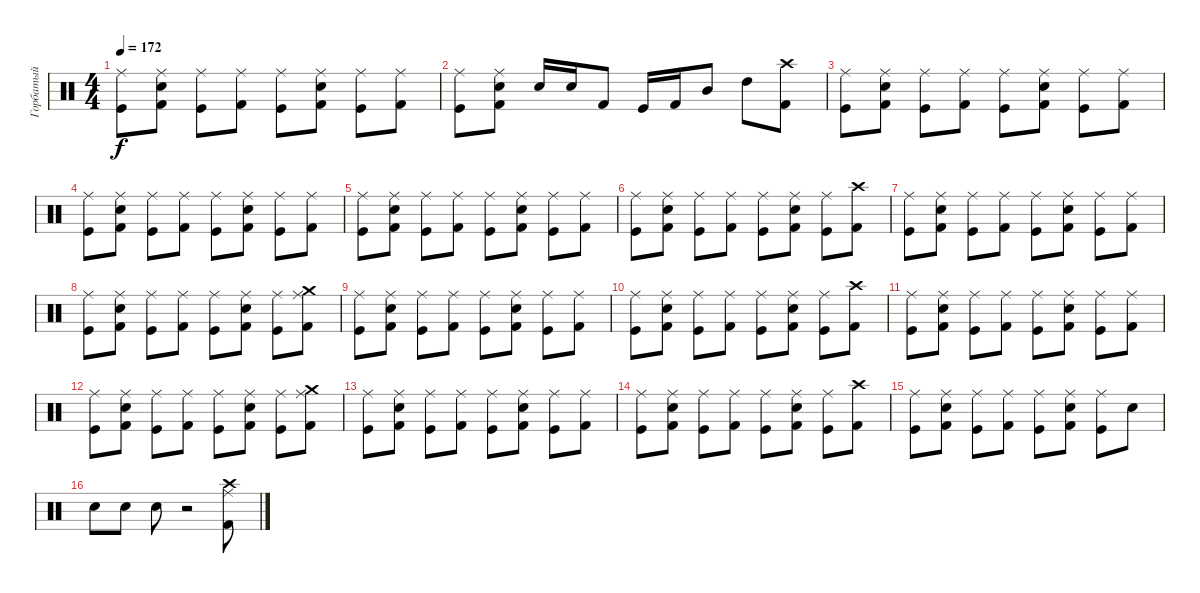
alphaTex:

\track ("Горбатый" "Горбатый") {instrument percussion}
\staff {score}
\articulation defaults
\ts (4 4)
\tempo 172
\clef neutral
\ks c
("Ride (middle)" "Kick (hit)").8{dy f} ("Electric Snare (hit)" "Ride (middle)" "Kick (hit) 2").8 ("Ride (middle)" "Kick (hit)").8 ("Ride (middle)" "Kick (hit) 2").8 ("Ride (middle)" "Kick (hit)").8 ("Electric Snare (hit)" "Ride (middle)" "Kick (hit) 2").8 ("Ride (middle)" "Kick (hit)").8 ("Ride (middle)" "Kick (hit) 2").8 |
("Ride (middle)" "Kick (hit)").8 ("Electric Snare (hit)" "Ride (middle)" "Kick (hit) 2").8 "Electric Snare (hit)".16 "Electric Snare (hit)".16 "Kick (hit) 2".8 "Kick (hit)".16 "Kick (hit) 2".16 "Mid Tom (hit)".8 "High Tom (hit)".8 ("Crash high (hit)" "Kick (hit) 2").8 |
("Ride (middle)" "Kick (hit)").8 ("Electric Snare (hit)" "Ride (middle)" "Kick (hit) 2").8 ("Ride (middle)" "Kick (hit)").8 ("Ride (middle)" "Kick (hit) 2").8 ("Ride (middle)" "Kick (hit)").8 ("Electric Snare (hit)" "Ride (middle)" "Kick (hit) 2").8 ("Ride (middle)" "Kick (hit)").8 ("Ride (middle)" "Kick (hit) 2").8 |
("Ride (middle)" "Kick (hit)").8 ("Electric Snare (hit)" "Ride (middle)" "Kick (hit) 2").8 ("Ride (middle)" "Kick (hit)").8 ("Ride (middle)" "Kick (hit) 2").8 ("Ride (middle)" "Kick (hit)").8 ("Electric Snare (hit)" "Ride (middle)" "Kick (hit) 2").8 ("Ride (middle)" "Kick (hit)").8 ("Ride (middle)" "Kick (hit) 2").8 |
("Ride (middle)" "Kick (hit)").8 ("Electric Snare (hit)" "Ride (middle)" "Kick (hit) 2").8 ("Ride (middle)" "Kick (hit)").8 ("Ride (middle)" "Kick (hit) 2").8 ("Ride (middle)" "Kick (hit)").8 ("Electric Snare (hit)" "Ride (middle)" "Kick (hit) 2").8 ("Ride (middle)" "Kick (hit)").8 ("Ride (middle)" "Kick (hit) 2").8 |
("Ride (middle)" "Kick (hit)").8 ("Electric Snare (hit)" "Ride (middle)" "Kick (hit) 2").8 ("Ride (middle)" "Kick (hit)").8 ("Ride (middle)" "Kick (hit) 2").8 ("Ride (middle)" "Kick (hit)").8 ("Electric Snare (hit)" "Ride (middle)" "Kick (hit) 2").8 ("Ride (middle)" "Kick (hit)").8 ("Crash high (hit)" "Kick (hit) 2").8 |
("Ride (middle)" "Kick (hit)").8 ("Electric Snare (hit)" "Ride (middle)" "Kick (hit) 2").8 ("Ride (middle)" "Kick (hit)").8 ("Ride (middle)" "Kick (hit) 2").8 ("Ride (middle)" "Kick (hit)").8 ("Electric Snare (hit)" "Ride (middle)" "Kick (hit) 2").8 ("Ride (middle)" "Kick (hit)").8 ("Ride (middle)" "Kick (hit) 2").8 |
("Ride (middle)" "Kick (hit)").8 ("Electric Snare (hit)" "Ride (middle)" "Kick (hit) 2").8 ("Ride (middle)" "Kick (hit)").8 ("Ride (middle)" "Kick (hit) 2").8 ("Ride (middle)" "Kick (hit)").8 ("Electric Snare (hit)" "Ride (middle)" "Kick (hit) 2").8 ("Ride (middle)" "Kick (hit)").8 ("Crash medium (hit)" "Ride (middle)" "Kick (hit) 2").8 |
("Ride (middle)" "Kick (hit)").8 ("Electric Snare (hit)" "Ride (middle)" "Kick (hit) 2").8 ("Ride (middle)" "Kick (hit)").8 ("Ride (middle)" "Kick (hit) 2").8 ("Ride (middle)" "Kick (hit)").8 ("Electric Snare (hit)" "Ride (middle)" "Kick (hit) 2").8 ("Ride (middle)" "Kick (hit)").8 ("Ride (middle)" "Kick (hit) 2").8 |
("Ride (middle)" "Kick (hit)").8 ("Electric Snare (hit)" "Ride (middle)" "Kick (hit) 2").8 ("Ride (middle)" "Kick (hit)").8 ("Ride (middle)" "Kick (hit) 2").8 ("Ride (middle)" "Kick (hit)").8 ("Electric Snare (hit)" "Ride (middle)" "Kick (hit) 2").8 ("Ride (middle)" "Kick (hit)").8 ("Crash high (hit)" "Kick (hit) 2").8 |
("Ride (middle)" "Kick (hit)").8 ("Electric Snare (hit)" "Ride (middle)" "Kick (hit) 2").8 ("Ride (middle)" "Kick (hit)").8 ("Ride (middle)" "Kick (hit) 2").8 ("Ride (middle)" "Kick (hit)").8 ("Electric Snare (hit)" "Ride (middle)" "Kick (hit) 2").8 ("Ride (middle)" "Kick (hit)").8 ("Ride (middle)" "Kick (hit) 2").8 |
("Ride (middle)" "Kick (hit)").8 ("Electric Snare (hit)" "Ride (middle)" "Kick (hit) 2").8 ("Ride (middle)" "Kick (hit)").8 ("Ride (middle)" "Kick (hit) 2").8 ("Ride (middle)" "Kick (hit)").8 ("Electric Snare (hit)" "Ride (middle)" "Kick (hit) 2").8 ("Ride (middle)" "Kick (hit)").8 ("Ride (middle)" "Crash medium (hit)" "Kick (hit) 2").8 |
("Ride (middle)" "Kick (hit)").8 ("Electric Snare (hit)" "Ride (middle)" "Kick (hit) 2").8 ("Ride (middle)" "Kick (hit)").8 ("Ride (middle)" "Kick (hit) 2").8 ("Ride (middle)" "Kick (hit)").8 ("Electric Snare (hit)" "Ride (middle)" "Kick (hit) 2").8 ("Ride (middle)" "Kick (hit)").8 ("Ride (middle)" "Kick (hit) 2").8 |
("Ride (middle)" "Kick (hit)").8 ("Electric Snare (hit)" "Ride (middle)" "Kick (hit) 2").8 ("Ride (middle)" "Kick (hit)").8 ("Ride (middle)" "Kick (hit) 2").8 ("Ride (middle)" "Kick (hit)").8 ("Electric Snare (hit)" "Ride (middle)" "Kick (hit) 2").8 ("Ride (middle)" "Kick (hit)").8 ("Crash high (hit)" "Kick (hit) 2").8 |
("Ride (middle)" "Kick (hit)").8 ("Electric Snare (hit)" "Ride (middle)" "Kick (hit) 2").8 ("Ride (middle)" "Kick (hit)").8 ("Ride (middle)" "Kick (hit) 2").8 ("Ride (middle)" "Kick (hit)").8 ("Electric Snare (hit)" "Ride (middle)" "Kick (hit) 2").8 ("Ride (middle)" "Kick (hit)").8 "Electric Snare (hit)".8 |
"Electric Snare (hit)".8 "Electric Snare (hit)".8 "Electric Snare (hit)".8 r.2 ("Crash high (hit)" "Ride (middle)" "Kick (hit) 2").8
